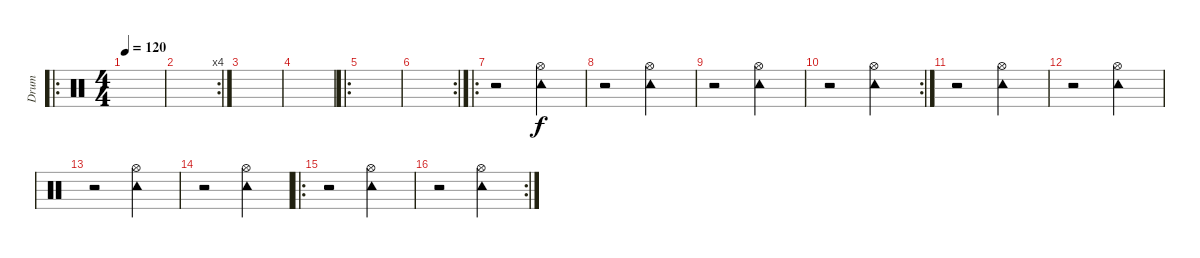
\track ("Drum" "Drum") {instrument percussion}
\staff {score}
\articulation defaults
\ro
\ts (4 4)
\tempo 120
\clef neutral
\ks c
|
\rc 4
|
|
|
\ro
|
\rc 2
|
\ro
r.2 ("Tambourine (hit)" "Hi-Hat (open)").2 |
r.2 ("Tambourine (hit)" "Hi-Hat (open)").2 |
r.2 ("Tambourine (hit)" "Hi-Hat (open)").2 |
\rc 2
r.2 ("Tambourine (hit)" "Hi-Hat (open)").2 |
r.2 ("Tambourine (hit)" "Hi-Hat (open)").2 |
r.2 ("Tambourine (hit)" "Hi-Hat (open)").2 |
r.2 ("Tambourine (hit)" "Hi-Hat (open)").2 |
r.2 ("Tambourine (hit)" "Hi-Hat (open)").2 |
\ro
r.2 ("Tambourine (hit)" "Hi-Hat (open)").2 |
\rc 2
r.2 ("Tambourine (hit)" "Hi-Hat (open)").2
